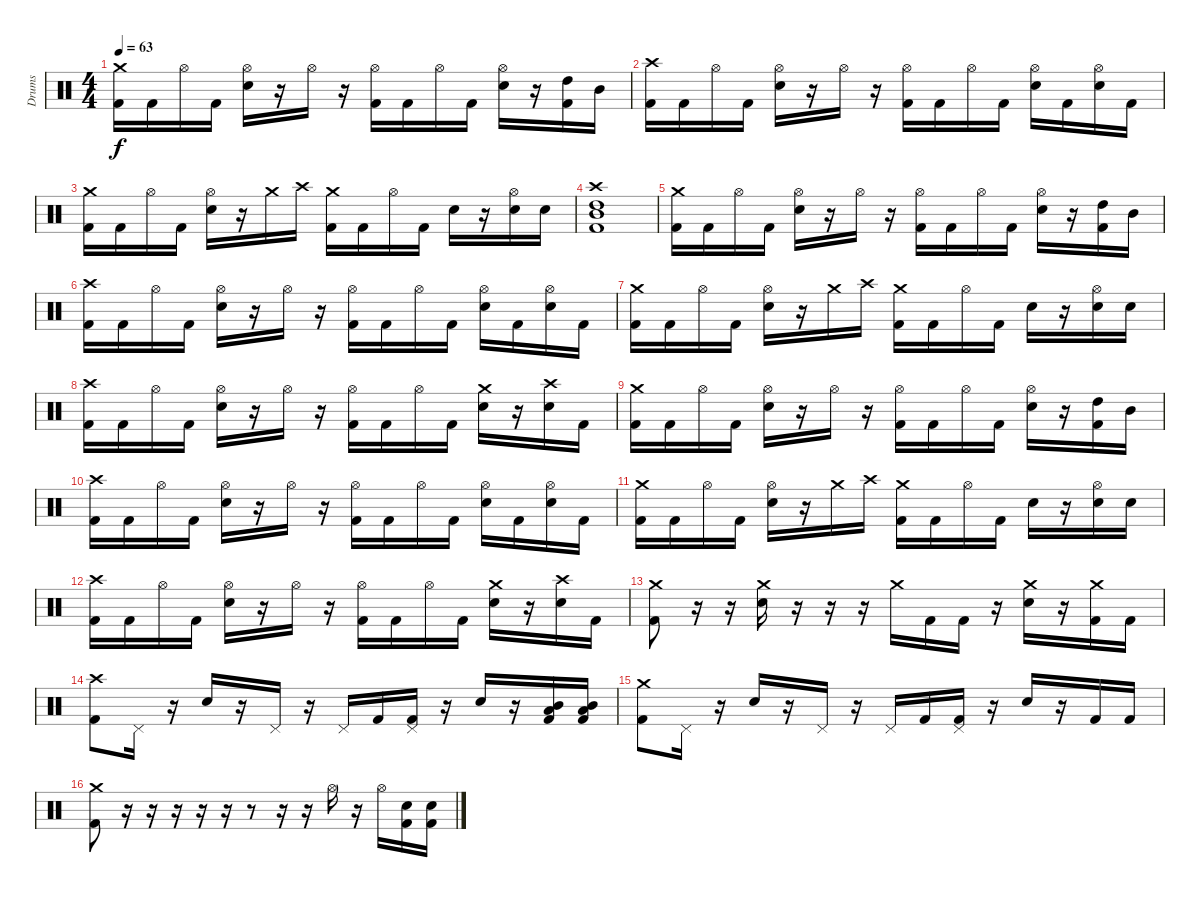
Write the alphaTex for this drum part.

\track ("Drums" "Drums") {instrument percussion}
\staff {score}
\articulation defaults
\ts (4 4)
\tempo 63
\clef neutral
\ks c
("Crash medium (hit)" "Kick (hit) 2").16{dy f} "Kick (hit) 2".16 "Hi-Hat (open)".16 "Kick (hit) 2".16 ("Hi-Hat (open)" "Electric Snare (hit)").16 r.16 "Hi-Hat (open)".16 r.16 ("Hi-Hat (open)" "Kick (hit) 2").16 "Kick (hit) 2".16 "Hi-Hat (open)".16 "Kick (hit) 2".16 ("Hi-Hat (open)" "Electric Snare (hit)").16 r.16 ("High Tom (hit)" "Kick (hit) 2").16 "Mid Tom (hit)".16 |
("Crash high (hit)" "Kick (hit) 2").16 "Kick (hit) 2".16 "Hi-Hat (open)".16 "Kick (hit) 2".16 ("Hi-Hat (open)" "Electric Snare (hit)").16 r.16 "Hi-Hat (open)".16 r.16 ("Hi-Hat (open)" "Kick (hit) 2").16 "Kick (hit) 2".16 "Hi-Hat (open)".16 "Kick (hit) 2".16 ("Hi-Hat (open)" "Electric Snare (hit)").16 "Kick (hit) 2".16 ("Hi-Hat (open)" "Electric Snare (hit)").16 "Kick (hit) 2".16 |
("Crash medium (hit)" "Kick (hit) 2").16 "Kick (hit) 2".16 "Hi-Hat (open)".16 "Kick (hit) 2".16 ("Hi-Hat (open)" "Electric Snare (hit)").16 r.16 "Crash medium (hit)".16 "Crash high (hit)".16 ("Crash medium (hit)" "Kick (hit) 2").16 "Kick (hit) 2".16 "Hi-Hat (open)".16 "Kick (hit) 2".16 "Electric Snare (hit)".16 r.16 ("Hi-Hat (open)" "Electric Snare (hit)").16 "Electric Snare (hit)".16 |
("Crash high (hit)" "High Tom (hit)" "Mid Tom (hit)" "Kick (hit) 2").1 |
("Crash medium (hit)" "Kick (hit) 2").16 "Kick (hit) 2".16 "Hi-Hat (open)".16 "Kick (hit) 2".16 ("Hi-Hat (open)" "Electric Snare (hit)").16 r.16 "Hi-Hat (open)".16 r.16 ("Hi-Hat (open)" "Kick (hit) 2").16 "Kick (hit) 2".16 "Hi-Hat (open)".16 "Kick (hit) 2".16 ("Hi-Hat (open)" "Electric Snare (hit)").16 r.16 ("High Tom (hit)" "Kick (hit) 2").16 "Mid Tom (hit)".16 |
("Crash high (hit)" "Kick (hit) 2").16 "Kick (hit) 2".16 "Hi-Hat (open)".16 "Kick (hit) 2".16 ("Hi-Hat (open)" "Electric Snare (hit)").16 r.16 "Hi-Hat (open)".16 r.16 ("Hi-Hat (open)" "Kick (hit) 2").16 "Kick (hit) 2".16 "Hi-Hat (open)".16 "Kick (hit) 2".16 ("Hi-Hat (open)" "Electric Snare (hit)").16 "Kick (hit) 2".16 ("Hi-Hat (open)" "Electric Snare (hit)").16 "Kick (hit) 2".16 |
("Crash medium (hit)" "Kick (hit) 2").16 "Kick (hit) 2".16 "Hi-Hat (open)".16 "Kick (hit) 2".16 ("Hi-Hat (open)" "Electric Snare (hit)").16 r.16 "Crash medium (hit)".16 "Crash high (hit)".16 ("Crash medium (hit)" "Kick (hit) 2").16 "Kick (hit) 2".16 "Hi-Hat (open)".16 "Kick (hit) 2".16 "Electric Snare (hit)".16 r.16 ("Hi-Hat (open)" "Electric Snare (hit)").16 "Electric Snare (hit)".16 |
("Crash high (hit)" "Kick (hit) 2").16 "Kick (hit) 2".16 "Hi-Hat (open)".16 "Kick (hit) 2".16 ("Hi-Hat (open)" "Electric Snare (hit)").16 r.16 "Hi-Hat (open)".16 r.16 ("Hi-Hat (open)" "Kick (hit) 2").16 "Kick (hit) 2".16 "Hi-Hat (open)".16 "Kick (hit) 2".16 ("Crash medium (hit)" "Electric Snare (hit)").16 r.16 ("Crash high (hit)" "Electric Snare (hit)").16 "Kick (hit) 2".16 |
("Crash medium (hit)" "Kick (hit) 2").16 "Kick (hit) 2".16 "Hi-Hat (open)".16 "Kick (hit) 2".16 ("Hi-Hat (open)" "Electric Snare (hit)").16 r.16 "Hi-Hat (open)".16 r.16 ("Hi-Hat (open)" "Kick (hit) 2").16 "Kick (hit) 2".16 "Hi-Hat (open)".16 "Kick (hit) 2".16 ("Hi-Hat (open)" "Electric Snare (hit)").16 r.16 ("High Tom (hit)" "Kick (hit) 2").16 "Mid Tom (hit)".16 |
("Crash high (hit)" "Kick (hit) 2").16 "Kick (hit) 2".16 "Hi-Hat (open)".16 "Kick (hit) 2".16 ("Hi-Hat (open)" "Electric Snare (hit)").16 r.16 "Hi-Hat (open)".16 r.16 ("Hi-Hat (open)" "Kick (hit) 2").16 "Kick (hit) 2".16 "Hi-Hat (open)".16 "Kick (hit) 2".16 ("Hi-Hat (open)" "Electric Snare (hit)").16 "Kick (hit) 2".16 ("Hi-Hat (open)" "Electric Snare (hit)").16 "Kick (hit) 2".16 |
("Crash medium (hit)" "Kick (hit) 2").16 "Kick (hit) 2".16 "Hi-Hat (open)".16 "Kick (hit) 2".16 ("Hi-Hat (open)" "Electric Snare (hit)").16 r.16 "Crash medium (hit)".16 "Crash high (hit)".16 ("Crash medium (hit)" "Kick (hit) 2").16 "Kick (hit) 2".16 "Hi-Hat (open)".16 "Kick (hit) 2".16 "Electric Snare (hit)".16 r.16 ("Hi-Hat (open)" "Electric Snare (hit)").16 "Electric Snare (hit)".16 |
("Crash high (hit)" "Kick (hit) 2").16 "Kick (hit) 2".16 "Hi-Hat (open)".16 "Kick (hit) 2".16 ("Hi-Hat (open)" "Electric Snare (hit)").16 r.16 "Hi-Hat (open)".16 r.16 ("Hi-Hat (open)" "Kick (hit) 2").16 "Kick (hit) 2".16 "Hi-Hat (open)".16 "Kick (hit) 2".16 ("Crash medium (hit)" "Electric Snare (hit)").16 r.16 ("Crash high (hit)" "Electric Snare (hit)").16 "Kick (hit) 2".16 |
("Crash medium (hit)" "Kick (hit) 2").8 r.16 r.16 ("Crash medium (hit)" "Electric Snare (hit)").16 r.16 r.16 r.16 "Crash medium (hit)".16 "Kick (hit) 2".16 "Kick (hit) 2".16 r.16 ("Crash medium (hit)" "Electric Snare (hit)").16 r.16 ("Crash medium (hit)" "Kick (hit) 2").16 "Kick (hit) 2".16 |
("Crash high (hit)" "Kick (hit) 2").8 "Pedal Hi-Hat (hit)".16 r.16 "Electric Snare (hit)".16 r.16 "Pedal Hi-Hat (hit)".16 r.16 "Pedal Hi-Hat (hit)".16 "Kick (hit) 2".16 ("Pedal Hi-Hat (hit)" "Kick (hit) 2").16 r.16 "Electric Snare (hit)".16 r.16 ("Mid Tom (hit)" "Low Tom (hit)" "Kick (hit) 2").16 ("Mid Tom (hit)" "Low Tom (hit)" "Kick (hit) 2").16 |
("Crash medium (hit)" "Kick (hit) 2").8 "Pedal Hi-Hat (hit)".16 r.16 "Electric Snare (hit)".16 r.16 "Pedal Hi-Hat (hit)".16 r.16 "Pedal Hi-Hat (hit)".16 "Kick (hit) 2".16 ("Pedal Hi-Hat (hit)" "Kick (hit) 2").16 r.16 "Electric Snare (hit)".16 r.16 "Kick (hit) 2".16 "Kick (hit) 2".16 |
("Crash medium (hit)" "Kick (hit) 2").8 r.16 r.16 r.16 r.16 r.16 r.8 r.16 r.16 "Hi-Hat (open)".16 r.16 "Hi-Hat (open)".16 ("Electric Snare (hit)" "Kick (hit) 2").16 ("Electric Snare (hit)" "Kick (hit) 2").16
